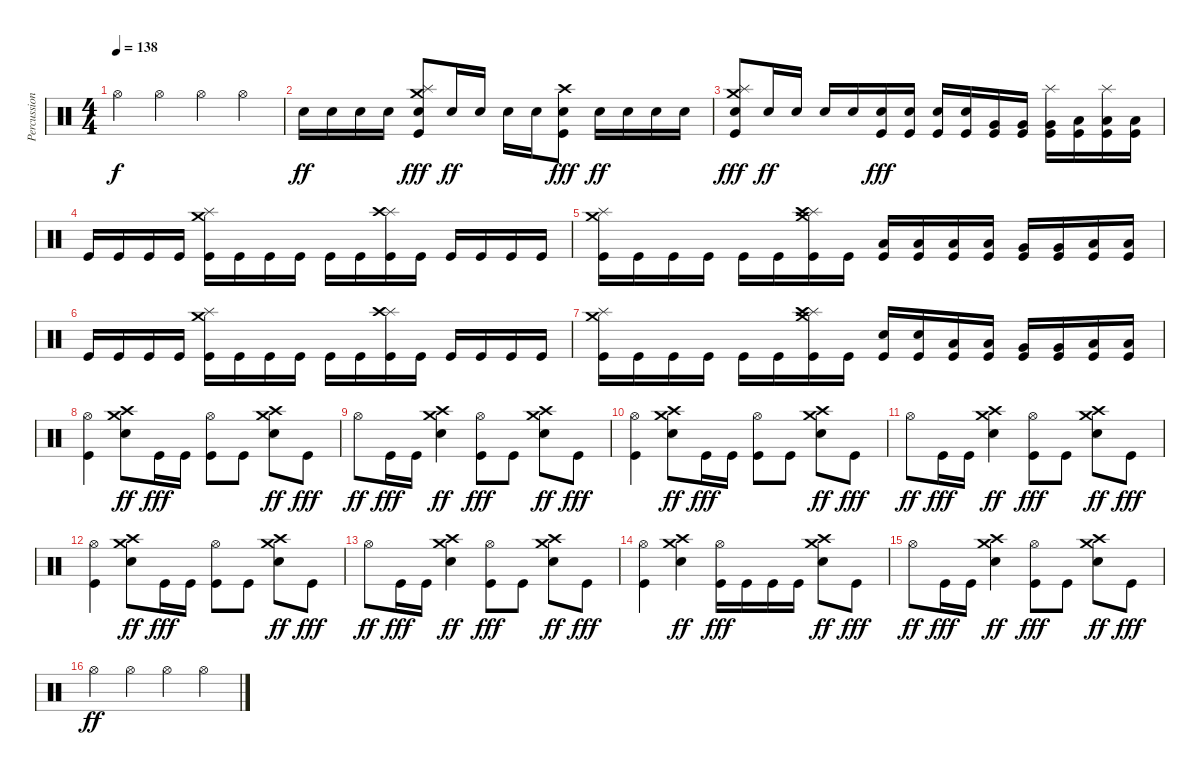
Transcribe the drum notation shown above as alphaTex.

\track ("Percussion" "Percussion") {instrument percussion}
\staff {score}
\articulation defaults
\ts (4 4)
\tempo 138
\clef neutral
\ks c "Hi-Hat (open)".4{dy f} "Hi-Hat (open)".4 "Hi-Hat (open)".4 "Hi-Hat (open)".4
|
"Electric Snare (hit)".16{dy ff} "Electric Snare (hit)".16 "Electric Snare (hit)".16 "Electric Snare (hit)".16 ("Crash medium (hit)" "Splash (hit)" "Electric Snare (hit)" "Kick (hit)").8{dy fff} "Electric Snare (hit)".16{dy ff} "Electric Snare (hit)".16 "Electric Snare (hit)".16 "Electric Snare (hit)".16 ("Crash high (hit)" "Electric Snare (hit)" "Kick (hit)").8{dy fff} "Electric Snare (hit)".16{dy ff} "Electric Snare (hit)".16 "Electric Snare (hit)".16 "Electric Snare (hit)".16 |
("Crash medium (hit)" "Splash (hit)" "Electric Snare (hit)" "Kick (hit)").8{dy fff} "Electric Snare (hit)".16{dy ff} "Electric Snare (hit)".16 "Electric Snare (hit)".16 "Electric Snare (hit)".16 ("Electric Snare (hit)" "Kick (hit)").16{dy fff} ("Electric Snare (hit)" "Kick (hit)").16 ("Electric Snare (hit)" "Kick (hit)").16 ("Electric Snare (hit)" "Kick (hit)").16 ("Very Low Tom (hit)" "Kick (hit)").16 ("Very Low Tom (hit)" "Kick (hit)").16 ("Splash (hit)" "Very Low Tom (hit)" "Kick (hit)").16 ("Low Floor Tom (hit)" "Kick (hit)").16 ("Splash (hit)" "Low Floor Tom (hit)" "Kick (hit)").16 ("Low Floor Tom (hit)" "Kick (hit)").16 |
"Kick (hit)".16 "Kick (hit)".16 "Kick (hit)".16 "Kick (hit)".16 ("Splash (hit)" "Crash medium (hit)" "Kick (hit)").16 "Kick (hit)".16 "Kick (hit)".16 "Kick (hit)".16 "Kick (hit)".16 "Kick (hit)".16 ("Splash (hit)" "Crash high (hit)" "Kick (hit)").16 "Kick (hit)".16 "Kick (hit)".16 "Kick (hit)".16 "Kick (hit)".16 "Kick (hit)".16 |
("Splash (hit)" "Crash medium (hit)" "Kick (hit)").16 "Kick (hit)".16 "Kick (hit)".16 "Kick (hit)".16 "Kick (hit)".16 "Kick (hit)".16 ("Crash medium (hit)" "Splash (hit)" "Crash high (hit)" "Kick (hit)").16 "Kick (hit)".16 ("Low Floor Tom (hit)" "Kick (hit)").16 ("Low Floor Tom (hit)" "Kick (hit)").16 ("Low Tom (hit)" "Kick (hit)").16 ("Low Tom (hit)" "Kick (hit)").16 ("Very Low Tom (hit)" "Kick (hit)").16 ("Very Low Tom (hit)" "Kick (hit)").16 ("Low Floor Tom (hit)" "Kick (hit)").16 ("Low Floor Tom (hit)" "Kick (hit)").16 |
"Kick (hit)".16 "Kick (hit)".16 "Kick (hit)".16 "Kick (hit)".16 ("Splash (hit)" "Crash medium (hit)" "Kick (hit)").16 "Kick (hit)".16 "Kick (hit)".16 "Kick (hit)".16 "Kick (hit)".16 "Kick (hit)".16 ("Splash (hit)" "Crash high (hit)" "Kick (hit)").16 "Kick (hit)".16 "Kick (hit)".16 "Kick (hit)".16 "Kick (hit)".16 "Kick (hit)".16 |
("Splash (hit)" "Crash medium (hit)" "Kick (hit)").16 "Kick (hit)".16 "Kick (hit)".16 "Kick (hit)".16 "Kick (hit)".16 "Kick (hit)".16 ("Crash medium (hit)" "Splash (hit)" "Crash high (hit)" "Kick (hit)").16 "Kick (hit)".16 ("Electric Snare (hit)" "Kick (hit)").16 ("Electric Snare (hit)" "Kick (hit)").16 ("Low Tom (hit)" "Kick (hit)").16 ("Low Tom (hit)" "Kick (hit)").16 ("Very Low Tom (hit)" "Kick (hit)").16 ("Very Low Tom (hit)" "Kick (hit)").16 ("Low Floor Tom (hit)" "Kick (hit)").16 ("Low Floor Tom (hit)" "Kick (hit)").16 |
("Hi-Hat (open)" "Kick (hit)").4 ("Crash medium (hit)" "Crash high (hit)" "Electric Snare (hit)").8{dy ff} "Kick (hit)".16{dy fff} "Kick (hit)".16 ("Hi-Hat (open)" "Kick (hit)").8 "Kick (hit)".8 ("Crash high (hit)" "Crash medium (hit)" "Electric Snare (hit)").8{dy ff} "Kick (hit)".8{dy fff} |
"Hi-Hat (open)".8{dy ff} "Kick (hit)".16{dy fff} "Kick (hit)".16 ("Crash high (hit)" "Crash medium (hit)" "Electric Snare (hit)").4{dy ff} ("Hi-Hat (open)" "Kick (hit)").8{dy fff} "Kick (hit)".8 ("Crash medium (hit)" "Crash high (hit)" "Electric Snare (hit)").8{dy ff} "Kick (hit)".8{dy fff} |
("Hi-Hat (open)" "Kick (hit)").4 ("Crash medium (hit)" "Crash high (hit)" "Electric Snare (hit)").8{dy ff} "Kick (hit)".16{dy fff} "Kick (hit)".16 ("Hi-Hat (open)" "Kick (hit)").8 "Kick (hit)".8 ("Crash high (hit)" "Crash medium (hit)" "Electric Snare (hit)").8{dy ff} "Kick (hit)".8{dy fff} |
"Hi-Hat (open)".8{dy ff} "Kick (hit)".16{dy fff} "Kick (hit)".16 ("Crash high (hit)" "Crash medium (hit)" "Electric Snare (hit)").4{dy ff} ("Hi-Hat (open)" "Kick (hit)").8{dy fff} "Kick (hit)".8 ("Crash medium (hit)" "Crash high (hit)" "Electric Snare (hit)").8{dy ff} "Kick (hit)".8{dy fff} |
("Hi-Hat (open)" "Kick (hit)").4 ("Crash medium (hit)" "Crash high (hit)" "Electric Snare (hit)").8{dy ff} "Kick (hit)".16{dy fff} "Kick (hit)".16 ("Hi-Hat (open)" "Kick (hit)").8 "Kick (hit)".8 ("Crash high (hit)" "Crash medium (hit)" "Electric Snare (hit)").8{dy ff} "Kick (hit)".8{dy fff} |
"Hi-Hat (open)".8{dy ff} "Kick (hit)".16{dy fff} "Kick (hit)".16 ("Crash high (hit)" "Crash medium (hit)" "Electric Snare (hit)").4{dy ff} ("Hi-Hat (open)" "Kick (hit)").8{dy fff} "Kick (hit)".8 ("Crash medium (hit)" "Crash high (hit)" "Electric Snare (hit)").8{dy ff} "Kick (hit)".8{dy fff} |
("Hi-Hat (open)" "Kick (hit)").4 ("Crash medium (hit)" "Crash high (hit)" "Electric Snare (hit)").4{dy ff} ("Hi-Hat (open)" "Kick (hit)").16{dy fff} "Kick (hit)".16 "Kick (hit)".16 "Kick (hit)".16 ("Crash high (hit)" "Crash medium (hit)" "Electric Snare (hit)").8{dy ff} "Kick (hit)".8{dy fff} |
"Hi-Hat (open)".8{dy ff} "Kick (hit)".16{dy fff} "Kick (hit)".16 ("Crash high (hit)" "Crash medium (hit)" "Electric Snare (hit)").4{dy ff} ("Hi-Hat (open)" "Kick (hit)").8{dy fff} "Kick (hit)".8 ("Crash medium (hit)" "Crash high (hit)" "Electric Snare (hit)").8{dy ff} "Kick (hit)".8{dy fff} |
"Hi-Hat (open)".4{dy ff} "Hi-Hat (open)".4 "Hi-Hat (open)".4 "Hi-Hat (open)".4
